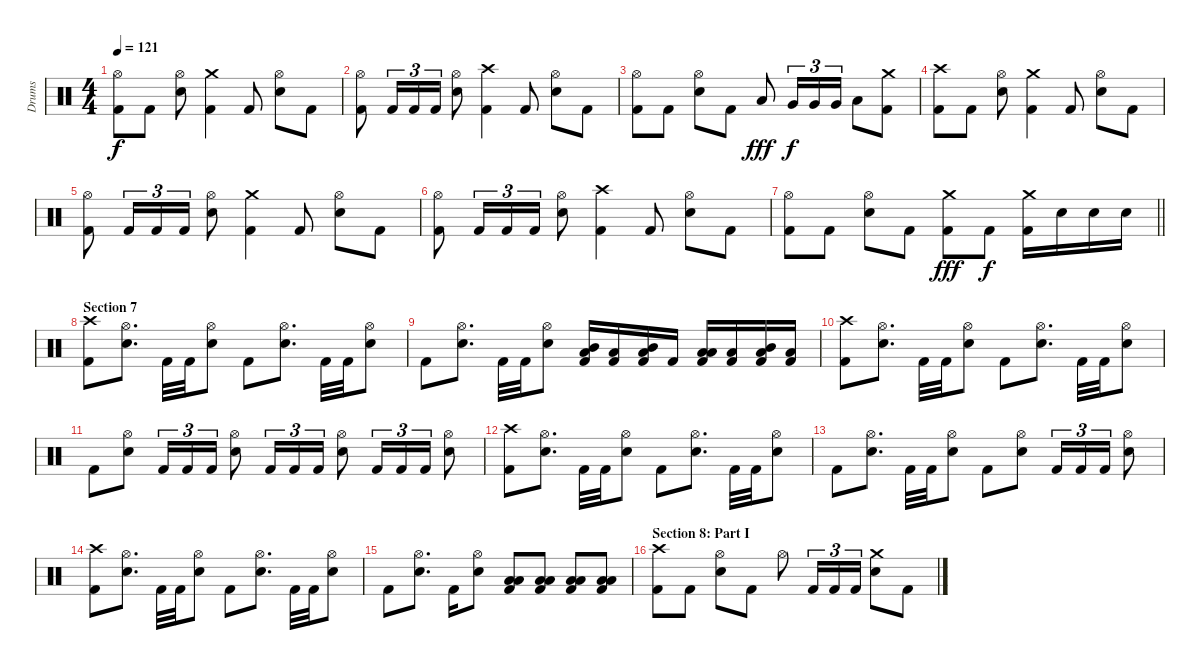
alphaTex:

\track ("Drums" "Drums") {instrument percussion}
\staff {score}
\articulation defaults
\ts (4 4)
\tempo 121
\clef neutral
\ks c
("Hi-Hat (open)" "Kick (hit) 2").8{dy f} "Kick (hit) 2".8 ("Hi-Hat (open)" "Electric Snare (hit)").8 ("Crash medium (hit)" "Kick (hit) 2").4 "Kick (hit) 2".8 ("Hi-Hat (open)" "Electric Snare (hit)").8 "Kick (hit) 2".8 |
("Hi-Hat (open)" "Kick (hit) 2").8 "Kick (hit) 2".16{tu (3 2)} "Kick (hit) 2".16{tu (3 2)} "Kick (hit) 2".16{tu (3 2)} ("Hi-Hat (open)" "Electric Snare (hit)").8 ("Crash high (hit)" "Kick (hit) 2").4 "Kick (hit) 2".8 ("Hi-Hat (open)" "Electric Snare (hit)").8 "Kick (hit) 2".8 |
("Hi-Hat (open)" "Kick (hit) 2").8 "Kick (hit) 2".8 ("Hi-Hat (open)" "Electric Snare (hit)").8 "Kick (hit) 2".8 "Low Tom (hit)".8{dy fff} "Very Low Tom (hit)".16{tu (3 2) dy f} "Very Low Tom (hit)".16{tu (3 2)} "Very Low Tom (hit)".16{tu (3 2)} "Low Floor Tom (hit)".8 ("Crash medium (hit)" "Kick (hit) 2").8 |
("Crash high (hit)" "Kick (hit) 2").8 "Kick (hit) 2".8 ("Hi-Hat (open)" "Electric Snare (hit)").8 ("Crash medium (hit)" "Kick (hit) 2").4 "Kick (hit) 2".8 ("Hi-Hat (open)" "Electric Snare (hit)").8 "Kick (hit) 2".8 |
("Hi-Hat (open)" "Kick (hit) 2").8 "Kick (hit) 2".16{tu (3 2)} "Kick (hit) 2".16{tu (3 2)} "Kick (hit) 2".16{tu (3 2)} ("Hi-Hat (open)" "Electric Snare (hit)").8 ("Crash medium (hit)" "Kick (hit) 2").4 "Kick (hit) 2".8 ("Hi-Hat (open)" "Electric Snare (hit)").8 "Kick (hit) 2".8 |
("Hi-Hat (open)" "Kick (hit) 2").8 "Kick (hit) 2".16{tu (3 2)} "Kick (hit) 2".16{tu (3 2)} "Kick (hit) 2".16{tu (3 2)} ("Hi-Hat (open)" "Electric Snare (hit)").8 ("Crash high (hit)" "Kick (hit) 2").4 "Kick (hit) 2".8 ("Hi-Hat (open)" "Electric Snare (hit)").8 "Kick (hit) 2".8 |
\barLineRight lightlight
("Hi-Hat (open)" "Kick (hit) 2").8 "Kick (hit) 2".8 ("Hi-Hat (open)" "Electric Snare (hit)").8 "Kick (hit) 2".8 ("Crash medium (hit)" "Kick (hit) 2").8{dy fff} "Kick (hit) 2".8{dy f} ("Crash medium (hit)" "Kick (hit) 2").16 "Electric Snare (hit)".16 "Electric Snare (hit)".16 "Electric Snare (hit)".16 |
\section ("" "Section 7")
("Crash high (hit)" "Kick (hit) 2").8 ("Hi-Hat (open)" "Electric Snare (hit)").8{d} "Kick (hit) 2".32 "Kick (hit) 2".32 ("Hi-Hat (open)" "Electric Snare (hit)").8 "Kick (hit) 2".8 ("Hi-Hat (open)" "Electric Snare (hit)").8{d} "Kick (hit) 2".32 "Kick (hit) 2".32 ("Hi-Hat (open)" "Electric Snare (hit)").8 |
"Kick (hit) 2".8 ("Hi-Hat (open)" "Electric Snare (hit)").8{d} "Kick (hit) 2".32 "Kick (hit) 2".32 ("Hi-Hat (open)" "Electric Snare (hit)").8 ("Mid Tom (hit)" "Low Floor Tom (hit)" "Kick (hit) 2").16 ("Low Floor Tom (hit)" "Kick (hit) 2").16 ("Mid Tom (hit)" "Low Floor Tom (hit)" "Kick (hit) 2").16 "Kick (hit) 2".16 ("Low Tom (hit)" "Low Floor Tom (hit)" "Kick (hit) 2").16 ("Low Floor Tom (hit)" "Kick (hit) 2").16 ("Mid Tom (hit)" "Low Floor Tom (hit)" "Kick (hit) 2").16 ("Low Floor Tom (hit)" "Kick (hit) 2").16 |
("Crash high (hit)" "Kick (hit) 2").8 ("Hi-Hat (open)" "Electric Snare (hit)").8{d} "Kick (hit) 2".32 "Kick (hit) 2".32 ("Hi-Hat (open)" "Electric Snare (hit)").8 "Kick (hit) 2".8 ("Hi-Hat (open)" "Electric Snare (hit)").8{d} "Kick (hit) 2".32 "Kick (hit) 2".32 ("Hi-Hat (open)" "Electric Snare (hit)").8 |
"Kick (hit) 2".8 ("Hi-Hat (open)" "Electric Snare (hit)").8 "Kick (hit) 2".16{tu (3 2)} "Kick (hit) 2".16{tu (3 2)} "Kick (hit) 2".16{tu (3 2)} ("Hi-Hat (open)" "Electric Snare (hit)").8 "Kick (hit) 2".16{tu (3 2)} "Kick (hit) 2".16{tu (3 2)} "Kick (hit) 2".16{tu (3 2)} ("Hi-Hat (open)" "Electric Snare (hit)").8 "Kick (hit) 2".16{tu (3 2)} "Kick (hit) 2".16{tu (3 2)} "Kick (hit) 2".16{tu (3 2)} ("Hi-Hat (open)" "Electric Snare (hit)").8 |
("Crash high (hit)" "Kick (hit) 2").8 ("Hi-Hat (open)" "Electric Snare (hit)").8{d} "Kick (hit) 2".32 "Kick (hit) 2".32 ("Hi-Hat (open)" "Electric Snare (hit)").8 "Kick (hit) 2".8 ("Hi-Hat (open)" "Electric Snare (hit)").8{d} "Kick (hit) 2".32 "Kick (hit) 2".32 ("Hi-Hat (open)" "Electric Snare (hit)").8 |
"Kick (hit) 2".8 ("Hi-Hat (open)" "Electric Snare (hit)").8{d} "Kick (hit) 2".32 "Kick (hit) 2".32 ("Hi-Hat (open)" "Electric Snare (hit)").8 "Kick (hit) 2".8 ("Hi-Hat (open)" "Electric Snare (hit)").8 "Kick (hit) 2".16{tu (3 2)} "Kick (hit) 2".16{tu (3 2)} "Kick (hit) 2".16{tu (3 2)} ("Hi-Hat (open)" "Electric Snare (hit)").8 |
("Crash high (hit)" "Kick (hit) 2").8 ("Hi-Hat (open)" "Electric Snare (hit)").8{d} "Kick (hit) 2".32 "Kick (hit) 2".32 ("Hi-Hat (open)" "Electric Snare (hit)").8 "Kick (hit) 2".8 ("Hi-Hat (open)" "Electric Snare (hit)").8{d} "Kick (hit) 2".32 "Kick (hit) 2".32 ("Hi-Hat (open)" "Electric Snare (hit)").8 |
"Kick (hit) 2".8 ("Hi-Hat (open)" "Electric Snare (hit)").8{d} "Kick (hit) 2".16 ("Hi-Hat (open)" "Electric Snare (hit)").8 ("Low Tom (hit)" "Low Floor Tom (hit)" "Kick (hit) 2").8 ("Low Tom (hit)" "Low Floor Tom (hit)" "Kick (hit) 2").8 ("Low Floor Tom (hit)" "Low Floor Tom (hit)" "Kick (hit) 2").8 ("Low Floor Tom (hit)" "Low Floor Tom (hit)" "Kick (hit) 2").8 |
\section ("" "Section 8: Part I")
("Crash high (hit)" "Kick (hit) 2").8 "Kick (hit) 2".8 ("Hi-Hat (open)" "Electric Snare (hit)").8 "Kick (hit) 2".8 "Hi-Hat (open)".8 "Kick (hit) 2".16{tu (3 2)} "Kick (hit) 2".16{tu (3 2)} "Kick (hit) 2".16{tu (3 2)} ("Crash medium (hit)" "Electric Snare (hit)").8 "Kick (hit) 2".8
